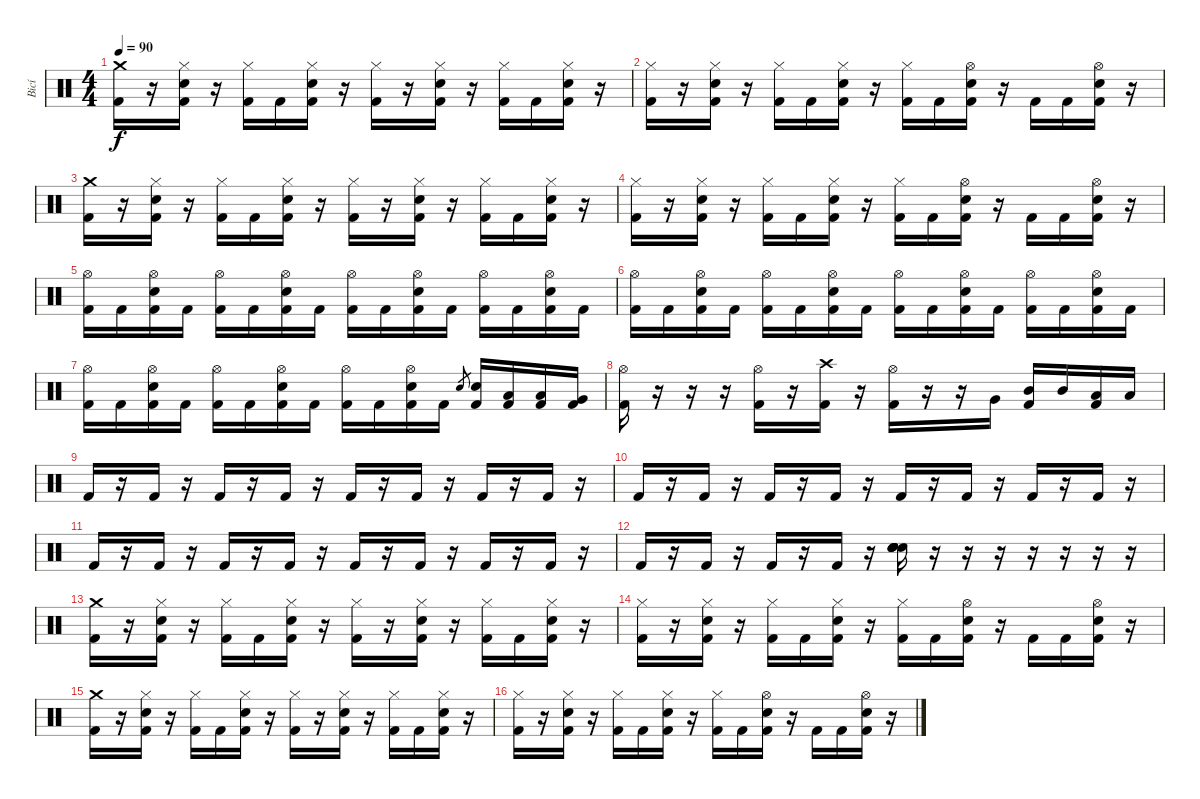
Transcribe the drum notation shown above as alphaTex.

\track ("Bicí" "Bicí") {instrument percussion}
\staff {score}
\articulation defaults
\ts (4 4)
\tempo 90
\clef neutral
\ks c
("Crash medium (hit)" "Kick (hit) 2").16{dy f} r.16 ("Hi-Hat (closed)" "Electric Snare (hit)" "Kick (hit) 2").16 r.16 ("Hi-Hat (closed)" "Kick (hit) 2").16 "Kick (hit) 2".16 ("Hi-Hat (closed)" "Electric Snare (hit)" "Kick (hit) 2").16 r.16 ("Hi-Hat (closed)" "Kick (hit) 2").16 r.16 ("Hi-Hat (closed)" "Electric Snare (hit)" "Kick (hit) 2").16 r.16 ("Hi-Hat (closed)" "Kick (hit) 2").16 "Kick (hit) 2".16 ("Hi-Hat (closed)" "Electric Snare (hit)" "Kick (hit) 2").16 r.16 |
("Hi-Hat (closed)" "Kick (hit) 2").16 r.16 ("Hi-Hat (closed)" "Electric Snare (hit)" "Kick (hit) 2").16 r.16 ("Hi-Hat (closed)" "Kick (hit) 2").16 "Kick (hit) 2".16 ("Hi-Hat (closed)" "Electric Snare (hit)" "Kick (hit) 2").16 r.16 ("Hi-Hat (closed)" "Kick (hit) 2").16 "Kick (hit) 2".16 ("Hi-Hat (open)" "Electric Snare (hit)" "Kick (hit) 2").16 r.16 "Kick (hit) 2".16 "Kick (hit) 2".16 ("Hi-Hat (open)" "Electric Snare (hit)" "Kick (hit) 2").16 r.16 |
("Crash medium (hit)" "Kick (hit) 2").16 r.16 ("Hi-Hat (closed)" "Electric Snare (hit)" "Kick (hit) 2").16 r.16 ("Hi-Hat (closed)" "Kick (hit) 2").16 "Kick (hit) 2".16 ("Hi-Hat (closed)" "Electric Snare (hit)" "Kick (hit) 2").16 r.16 ("Hi-Hat (closed)" "Kick (hit) 2").16 r.16 ("Hi-Hat (closed)" "Electric Snare (hit)" "Kick (hit) 2").16 r.16 ("Hi-Hat (closed)" "Kick (hit) 2").16 "Kick (hit) 2".16 ("Hi-Hat (closed)" "Electric Snare (hit)" "Kick (hit) 2").16 r.16 |
("Hi-Hat (closed)" "Kick (hit) 2").16 r.16 ("Hi-Hat (closed)" "Electric Snare (hit)" "Kick (hit) 2").16 r.16 ("Hi-Hat (closed)" "Kick (hit) 2").16 "Kick (hit) 2".16 ("Hi-Hat (closed)" "Electric Snare (hit)" "Kick (hit) 2").16 r.16 ("Hi-Hat (closed)" "Kick (hit) 2").16 "Kick (hit) 2".16 ("Hi-Hat (open)" "Electric Snare (hit)" "Kick (hit) 2").16 r.16 "Kick (hit) 2".16 "Kick (hit) 2".16 ("Hi-Hat (open)" "Electric Snare (hit)" "Kick (hit) 2").16 r.16 |
("Hi-Hat (open)" "Kick (hit) 2").16 "Kick (hit) 2".16 ("Hi-Hat (open)" "Electric Snare (hit)" "Kick (hit) 2").16 "Kick (hit) 2".16 ("Hi-Hat (open)" "Kick (hit) 2").16 "Kick (hit) 2".16 ("Hi-Hat (open)" "Electric Snare (hit)" "Kick (hit) 2").16 "Kick (hit) 2".16 ("Hi-Hat (open)" "Kick (hit) 2").16 "Kick (hit) 2".16 ("Hi-Hat (open)" "Electric Snare (hit)" "Kick (hit) 2").16 "Kick (hit) 2".16 ("Hi-Hat (open)" "Kick (hit) 2").16 "Kick (hit) 2".16 ("Hi-Hat (open)" "Electric Snare (hit)" "Kick (hit) 2").16 "Kick (hit) 2".16 |
("Hi-Hat (open)" "Kick (hit) 2").16 "Kick (hit) 2".16 ("Hi-Hat (open)" "Electric Snare (hit)" "Kick (hit) 2").16 "Kick (hit) 2".16 ("Hi-Hat (open)" "Kick (hit) 2").16 "Kick (hit) 2".16 ("Hi-Hat (open)" "Electric Snare (hit)" "Kick (hit) 2").16 "Kick (hit) 2".16 ("Hi-Hat (open)" "Kick (hit) 2").16 "Kick (hit) 2".16 ("Hi-Hat (open)" "Electric Snare (hit)" "Kick (hit) 2").16 "Kick (hit) 2".16 ("Hi-Hat (open)" "Kick (hit) 2").16 "Kick (hit) 2".16 ("Hi-Hat (open)" "Electric Snare (hit)" "Kick (hit) 2").16 "Kick (hit) 2".16 |
("Hi-Hat (open)" "Kick (hit) 2").16 "Kick (hit) 2".16 ("Hi-Hat (open)" "Electric Snare (hit)" "Kick (hit) 2").16 "Kick (hit) 2".16 ("Hi-Hat (open)" "Kick (hit) 2").16 "Kick (hit) 2".16 ("Hi-Hat (open)" "Electric Snare (hit)" "Kick (hit) 2").16 "Kick (hit) 2".16 ("Hi-Hat (open)" "Kick (hit) 2").16 "Kick (hit) 2".16 ("Hi-Hat (open)" "Electric Snare (hit)" "Kick (hit) 2").16 "Kick (hit) 2".16 "Electric Snare (hit)".8{gr} ("Electric Snare (hit)" "Kick (hit) 2").16 ("Low Tom (hit)" "Kick (hit) 2").16 ("Low Tom (hit)" "Kick (hit) 2").16 ("Very Low Tom (hit)" "Kick (hit) 2").16 |
("Hi-Hat (open)" "Kick (hit) 2").16 r.16 r.16 r.16 ("Hi-Hat (open)" "Kick (hit) 2").16 r.16 ("Crash high (hit)" "Kick (hit) 2").16 r.16 ("Hi-Hat (open)" "Kick (hit) 2").16 r.16 r.16 "Very Low Tom (hit)".16 ("Mid Tom (hit)" "Kick (hit) 2").16 "Mid Tom (hit)".16 ("Low Tom (hit)" "Kick (hit) 2").16 "Low Tom (hit)".16 |
"Kick (hit) 2".16 r.16 "Kick (hit) 2".16 r.16 "Kick (hit) 2".16 r.16 "Kick (hit) 2".16 r.16 "Kick (hit) 2".16 r.16 "Kick (hit) 2".16 r.16 "Kick (hit) 2".16 r.16 "Kick (hit) 2".16 r.16 |
"Kick (hit) 2".16 r.16 "Kick (hit) 2".16 r.16 "Kick (hit) 2".16 r.16 "Kick (hit) 2".16 r.16 "Kick (hit) 2".16 r.16 "Kick (hit) 2".16 r.16 "Kick (hit) 2".16 r.16 "Kick (hit) 2".16 r.16 |
"Kick (hit) 2".16 r.16 "Kick (hit) 2".16 r.16 "Kick (hit) 2".16 r.16 "Kick (hit) 2".16 r.16 "Kick (hit) 2".16 r.16 "Kick (hit) 2".16 r.16 "Kick (hit) 2".16 r.16 "Kick (hit) 2".16 r.16 |
"Kick (hit) 2".16 r.16 "Kick (hit) 2".16 r.16 "Kick (hit) 2".16 r.16 "Kick (hit) 2".16 r.16 ("Electric Snare (hit)" "Electric Snare (hit)" "Electric Snare (hit)" "Electric Snare (hit)" "Electric Snare (hit)").16 r.16 r.16 r.16 r.16 r.16 r.16 r.16 |
("Crash medium (hit)" "Kick (hit) 2").16 r.16 ("Hi-Hat (closed)" "Electric Snare (hit)" "Kick (hit) 2").16 r.16 ("Hi-Hat (closed)" "Kick (hit) 2").16 "Kick (hit) 2".16 ("Hi-Hat (closed)" "Electric Snare (hit)" "Kick (hit) 2").16 r.16 ("Hi-Hat (closed)" "Kick (hit) 2").16 r.16 ("Hi-Hat (closed)" "Electric Snare (hit)" "Kick (hit) 2").16 r.16 ("Hi-Hat (closed)" "Kick (hit) 2").16 "Kick (hit) 2".16 ("Hi-Hat (closed)" "Electric Snare (hit)" "Kick (hit) 2").16 r.16 |
("Hi-Hat (closed)" "Kick (hit) 2").16 r.16 ("Hi-Hat (closed)" "Electric Snare (hit)" "Kick (hit) 2").16 r.16 ("Hi-Hat (closed)" "Kick (hit) 2").16 "Kick (hit) 2".16 ("Hi-Hat (closed)" "Electric Snare (hit)" "Kick (hit) 2").16 r.16 ("Hi-Hat (closed)" "Kick (hit) 2").16 "Kick (hit) 2".16 ("Hi-Hat (open)" "Electric Snare (hit)" "Kick (hit) 2").16 r.16 "Kick (hit) 2".16 "Kick (hit) 2".16 ("Hi-Hat (open)" "Electric Snare (hit)" "Kick (hit) 2").16 r.16 |
("Crash medium (hit)" "Kick (hit) 2").16 r.16 ("Hi-Hat (closed)" "Electric Snare (hit)" "Kick (hit) 2").16 r.16 ("Hi-Hat (closed)" "Kick (hit) 2").16 "Kick (hit) 2".16 ("Hi-Hat (closed)" "Electric Snare (hit)" "Kick (hit) 2").16 r.16 ("Hi-Hat (closed)" "Kick (hit) 2").16 r.16 ("Hi-Hat (closed)" "Electric Snare (hit)" "Kick (hit) 2").16 r.16 ("Hi-Hat (closed)" "Kick (hit) 2").16 "Kick (hit) 2".16 ("Hi-Hat (closed)" "Electric Snare (hit)" "Kick (hit) 2").16 r.16 |
("Hi-Hat (closed)" "Kick (hit) 2").16 r.16 ("Hi-Hat (closed)" "Electric Snare (hit)" "Kick (hit) 2").16 r.16 ("Hi-Hat (closed)" "Kick (hit) 2").16 "Kick (hit) 2".16 ("Hi-Hat (closed)" "Electric Snare (hit)" "Kick (hit) 2").16 r.16 ("Hi-Hat (closed)" "Kick (hit) 2").16 "Kick (hit) 2".16 ("Hi-Hat (open)" "Electric Snare (hit)" "Kick (hit) 2").16 r.16 "Kick (hit) 2".16 "Kick (hit) 2".16 ("Hi-Hat (open)" "Electric Snare (hit)" "Kick (hit) 2").16 r.16
